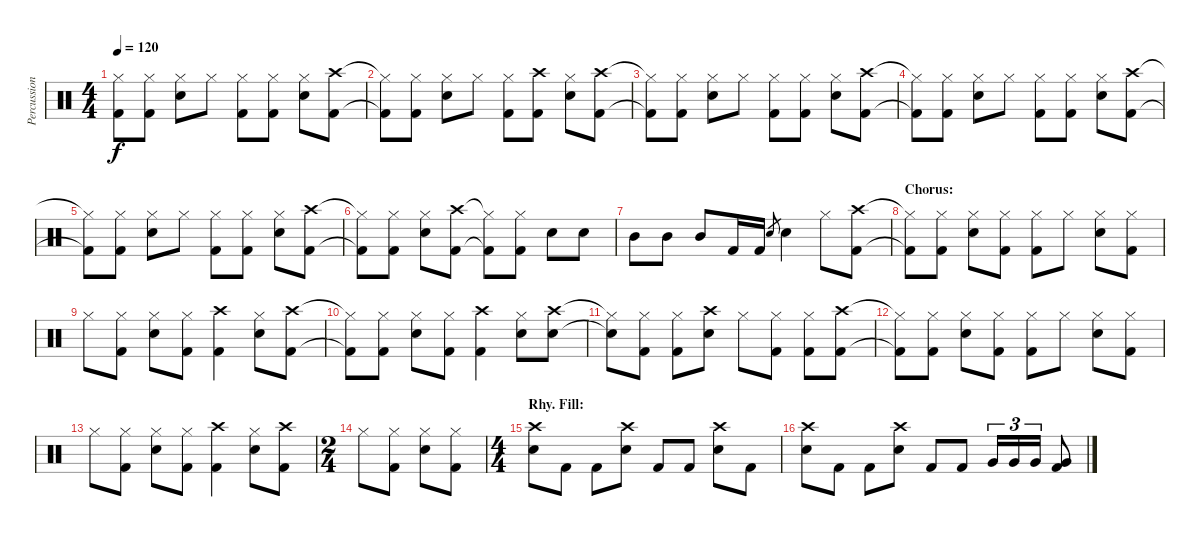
\track ("Percussion" "Percussion") {instrument percussion}
\staff {score}
\articulation defaults
\ts (4 4)
\tempo 120
\clef neutral
\ks c
("Hi-Hat (closed)"{t} "Kick (hit) 2"{t}).8{dy f} ("Hi-Hat (closed)" "Kick (hit) 2").8 ("Hi-Hat (closed)" "Snare (hit) 2").8 "Hi-Hat (closed)".8 ("Hi-Hat (closed)" "Kick (hit) 2").8 ("Hi-Hat (closed)" "Kick (hit) 2").8 ("Hi-Hat (closed)" "Snare (hit) 2").8 ("Crash high (hit)" "Kick (hit) 2").8 |
("Hi-Hat (closed)"{t} "Kick (hit) 2"{t}).8 ("Hi-Hat (closed)" "Kick (hit) 2").8 ("Hi-Hat (closed)" "Snare (hit) 2").8 "Hi-Hat (closed)".8 ("Hi-Hat (closed)" "Kick (hit) 2").8 ("Crash high (hit)" "Kick (hit) 2").8 ("Hi-Hat (closed)" "Snare (hit) 2").8 ("Crash high (hit)" "Kick (hit) 2").8 |
("Hi-Hat (closed)"{t} "Kick (hit) 2"{t}).8 ("Hi-Hat (closed)" "Kick (hit) 2").8 ("Hi-Hat (closed)" "Snare (hit) 2").8 "Hi-Hat (closed)".8 ("Hi-Hat (closed)" "Kick (hit) 2").8 ("Hi-Hat (closed)" "Kick (hit) 2").8 ("Hi-Hat (closed)" "Snare (hit) 2").8 ("Crash high (hit)" "Kick (hit) 2").8 |
("Hi-Hat (closed)"{t} "Kick (hit) 2"{t}).8 ("Hi-Hat (closed)" "Kick (hit) 2").8 ("Hi-Hat (closed)" "Snare (hit) 2").8 "Hi-Hat (closed)".8 ("Hi-Hat (closed)" "Kick (hit) 2").8 ("Hi-Hat (closed)" "Kick (hit) 2").8 ("Hi-Hat (closed)" "Snare (hit) 2").8 ("Crash high (hit)" "Kick (hit) 2").8 |
("Hi-Hat (closed)"{t} "Kick (hit) 2"{t}).8 ("Hi-Hat (closed)" "Kick (hit) 2").8 ("Hi-Hat (closed)" "Snare (hit) 2").8 "Hi-Hat (closed)".8 ("Hi-Hat (closed)" "Kick (hit) 2").8 ("Hi-Hat (closed)" "Kick (hit) 2").8 ("Hi-Hat (closed)" "Snare (hit) 2").8 ("Crash high (hit)" "Kick (hit) 2").8 |
("Hi-Hat (closed)"{t} "Kick (hit) 2"{t}).8 ("Hi-Hat (closed)" "Kick (hit) 2").8 ("Hi-Hat (closed)" "Snare (hit) 2").8 ("Crash high (hit)" "Kick (hit) 2").8 ("Hi-Hat (closed)"{t} "Kick (hit) 2"{t}).8 ("Hi-Hat (closed)" "Kick (hit) 2").8 "Snare (hit) 2".8 "Snare (hit) 2".8 |
"Mid Tom (hit)".8 "Mid Tom (hit)".8 "Mid Tom (hit)".8 "Kick (hit) 2".16 "Kick (hit) 2".16 "Snare (hit) 2".8{gr} "Snare (hit) 2".4 "Hi-Hat (closed)".8 ("Crash high (hit)" "Kick (hit) 2").8 |
\section ("" "Chorus:")
("Hi-Hat (closed)"{t} "Kick (hit) 2"{t}).8 ("Hi-Hat (closed)" "Kick (hit) 2").8 ("Hi-Hat (closed)" "Snare (hit) 2").8 ("Hi-Hat (closed)" "Kick (hit) 2").8 ("Hi-Hat (closed)" "Kick (hit) 2").8 "Hi-Hat (closed)".8 ("Hi-Hat (closed)" "Snare (hit) 2").8 ("Hi-Hat (closed)" "Kick (hit) 2").8 |
"Hi-Hat (closed)".8 ("Hi-Hat (closed)" "Kick (hit) 2").8 ("Hi-Hat (closed)" "Snare (hit) 2").8 ("Hi-Hat (closed)" "Kick (hit) 2").8 ("Crash high (hit)" "Kick (hit) 2").4 ("Hi-Hat (closed)" "Snare (hit) 2").8 ("Crash high (hit)" "Kick (hit) 2").8 |
("Hi-Hat (closed)"{t} "Kick (hit) 2"{t}).8 ("Hi-Hat (closed)" "Kick (hit) 2").8 ("Hi-Hat (closed)" "Snare (hit) 2").8 ("Hi-Hat (closed)" "Kick (hit) 2").8 ("Crash high (hit)" "Kick (hit) 2").4 ("Hi-Hat (closed)" "Snare (hit) 2").8 ("Crash high (hit)" "Snare (hit) 2").8 |
("Hi-Hat (closed)"{t} "Snare (hit)"{t}).8 ("Hi-Hat (closed)" "Kick (hit) 2").8 ("Hi-Hat (closed)" "Kick (hit) 2").8 ("Crash high (hit)" "Snare (hit) 2").8 "Hi-Hat (closed)".8 ("Hi-Hat (closed)" "Kick (hit) 2").8 ("Hi-Hat (closed)" "Kick (hit) 2").8 ("Crash high (hit)" "Kick (hit) 2").8 |
("Hi-Hat (closed)"{t} "Kick (hit) 2"{t}).8 ("Hi-Hat (closed)" "Kick (hit) 2").8 ("Hi-Hat (closed)" "Snare (hit) 2").8 ("Hi-Hat (closed)" "Kick (hit) 2").8 ("Hi-Hat (closed)" "Kick (hit) 2").8 "Hi-Hat (closed)".8 ("Hi-Hat (closed)" "Snare (hit) 2").8 ("Hi-Hat (closed)" "Kick (hit) 2").8 |
"Hi-Hat (closed)".8 ("Hi-Hat (closed)" "Kick (hit) 2").8 ("Hi-Hat (closed)" "Snare (hit) 2").8 ("Hi-Hat (closed)" "Kick (hit) 2").8 ("Crash high (hit)" "Kick (hit) 2").4 ("Hi-Hat (closed)" "Snare (hit) 2").8 ("Crash high (hit)" "Kick (hit) 2").8 |
\ts (2 4)
"Hi-Hat (closed)".8 ("Hi-Hat (closed)" "Kick (hit) 2").8 ("Hi-Hat (closed)" "Snare (hit) 2").8 ("Hi-Hat (closed)" "Kick (hit) 2").8 |
\ts (4 4)
\section ("" "Rhy. Fill:")
("Crash high (hit)" "Snare (hit) 2").8 "Kick (hit) 2".8 "Kick (hit) 2".8 ("Crash high (hit)" "Snare (hit) 2").8 "Kick (hit) 2".8 "Kick (hit) 2".8 ("Crash high (hit)" "Snare (hit) 2").8 "Kick (hit) 2".8 |
("Crash high (hit)" "Snare (hit) 2").8 "Kick (hit) 2".8 "Kick (hit) 2".8 ("Crash high (hit)" "Snare (hit) 2").8 "Kick (hit) 2".8 "Kick (hit) 2".8 "Very Low Tom (hit)".16{tu (3 2)} "Very Low Tom (hit)".16{tu (3 2)} "Very Low Tom (hit)".16{tu (3 2)} ("Very Low Tom (hit)" "Kick (hit) 2").8
